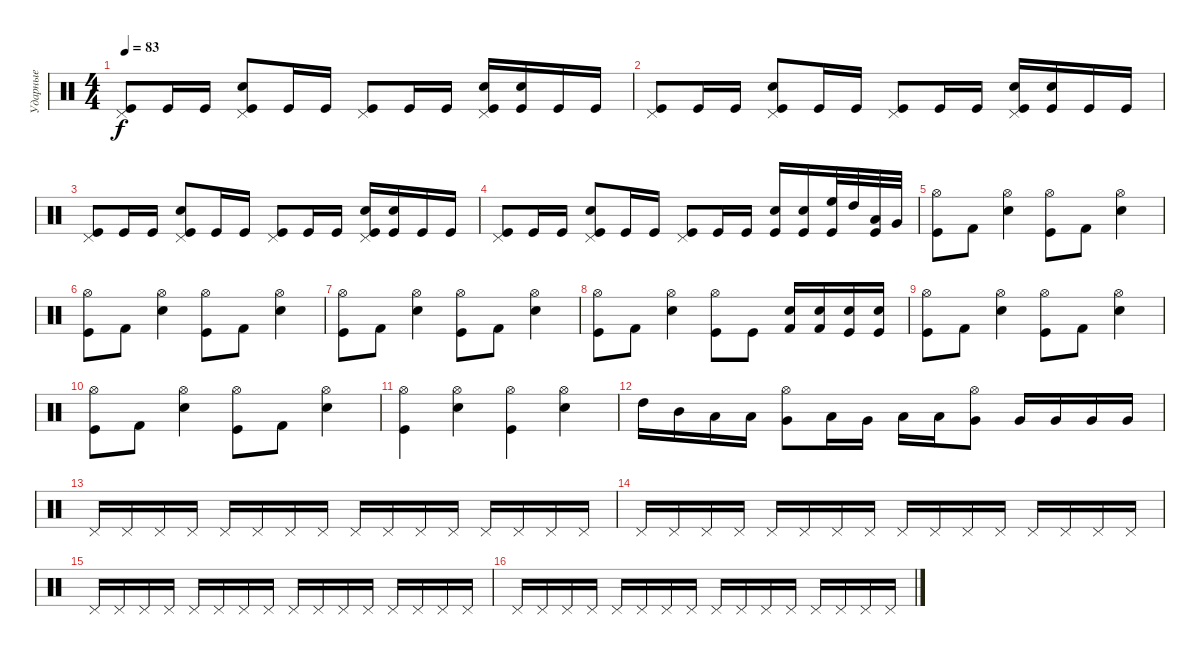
\track ("Ударные" "Ударные") {instrument percussion}
\staff {score}
\articulation defaults
\ts (4 4)
\tempo 83
\clef neutral
\ks c
("Pedal Hi-Hat (hit)" "Kick (hit)").8{dy f} "Kick (hit)".16 "Kick (hit)".16 ("Pedal Hi-Hat (hit)" "Kick (hit)" "Electric Snare (hit)").8 "Kick (hit)".16 "Kick (hit)".16 ("Pedal Hi-Hat (hit)" "Kick (hit)").8 "Kick (hit)".16 "Kick (hit)".16 ("Pedal Hi-Hat (hit)" "Kick (hit)" "Electric Snare (hit)").16 ("Kick (hit)" "Electric Snare (hit)").16 "Kick (hit)".16 "Kick (hit)".16 |
("Pedal Hi-Hat (hit)" "Kick (hit)").8 "Kick (hit)".16 "Kick (hit)".16 ("Pedal Hi-Hat (hit)" "Kick (hit)" "Electric Snare (hit)").8 "Kick (hit)".16 "Kick (hit)".16 ("Pedal Hi-Hat (hit)" "Kick (hit)").8 "Kick (hit)".16 "Kick (hit)".16 ("Pedal Hi-Hat (hit)" "Kick (hit)" "Electric Snare (hit)").16 ("Kick (hit)" "Electric Snare (hit)").16 "Kick (hit)".16 "Kick (hit)".16 |
("Pedal Hi-Hat (hit)" "Kick (hit)").8 "Kick (hit)".16 "Kick (hit)".16 ("Pedal Hi-Hat (hit)" "Kick (hit)" "Electric Snare (hit)").8 "Kick (hit)".16 "Kick (hit)".16 ("Pedal Hi-Hat (hit)" "Kick (hit)").8 "Kick (hit)".16 "Kick (hit)".16 ("Pedal Hi-Hat (hit)" "Kick (hit)" "Electric Snare (hit)").16 ("Kick (hit)" "Electric Snare (hit)").16 "Kick (hit)".16 "Kick (hit)".16 |
("Pedal Hi-Hat (hit)" "Kick (hit)").8 "Kick (hit)".16 "Kick (hit)".16 ("Pedal Hi-Hat (hit)" "Kick (hit)" "Electric Snare (hit)").8 "Kick (hit)".16 "Kick (hit)".16 ("Pedal Hi-Hat (hit)" "Kick (hit)").8 "Kick (hit)".16 "Kick (hit)".16 ("Kick (hit)" "Electric Snare (hit)").16 ("Kick (hit)" "Electric Snare (hit)").16 ("Kick (hit)" "High Floor Tom (hit)").32 "High Tom (hit)".32 ("Kick (hit)" "Low Tom (hit)").32 "Very Low Tom (hit)".32 |
("Hi-Hat (open)" "Kick (hit)").8 "Kick (hit) 2".8 ("Hi-Hat (open)" "Electric Snare (hit)").4 ("Hi-Hat (open)" "Kick (hit)").8 "Kick (hit) 2".8 ("Hi-Hat (open)" "Electric Snare (hit)").4 |
("Hi-Hat (open)" "Kick (hit)").8 "Kick (hit) 2".8 ("Hi-Hat (open)" "Electric Snare (hit)").4 ("Hi-Hat (open)" "Kick (hit)").8 "Kick (hit) 2".8 ("Hi-Hat (open)" "Electric Snare (hit)").4 |
("Hi-Hat (open)" "Kick (hit)").8 "Kick (hit) 2".8 ("Hi-Hat (open)" "Electric Snare (hit)").4 ("Hi-Hat (open)" "Kick (hit)").8 "Kick (hit) 2".8 ("Hi-Hat (open)" "Electric Snare (hit)").4 |
("Hi-Hat (open)" "Kick (hit)").8 "Kick (hit) 2".8 ("Hi-Hat (open)" "Electric Snare (hit)").4 ("Hi-Hat (open)" "Kick (hit)").8 "Kick (hit)".8 ("Kick (hit) 2" "Electric Snare (hit)").16 ("Kick (hit) 2" "Electric Snare (hit)").16 ("Electric Snare (hit)" "Kick (hit)").16 ("Electric Snare (hit)" "Kick (hit)").16 |
("Hi-Hat (open)" "Kick (hit)").8 "Kick (hit) 2".8 ("Hi-Hat (open)" "Electric Snare (hit)").4 ("Hi-Hat (open)" "Kick (hit)").8 "Kick (hit) 2".8 ("Hi-Hat (open)" "Electric Snare (hit)").4 |
("Hi-Hat (open)" "Kick (hit)").8 "Kick (hit) 2".8 ("Hi-Hat (open)" "Electric Snare (hit)").4 ("Hi-Hat (open)" "Kick (hit)").8 "Kick (hit) 2".8 ("Hi-Hat (open)" "Electric Snare (hit)").4 |
("Hi-Hat (open)" "Kick (hit)").4 ("Hi-Hat (open)" "Electric Snare (hit)").4 ("Hi-Hat (open)" "Kick (hit)").4 ("Hi-Hat (open)" "Electric Snare (hit)").4 |
"High Tom (hit)".16 "Mid Tom (hit)".16 "Low Tom (hit)".16 "Low Tom (hit)".16 ("Hi-Hat (open)" "Very Low Tom (hit)").8 "Low Tom (hit)".16 "Very Low Tom (hit)".16 "Low Floor Tom (hit)".16 "Low Floor Tom (hit)".16 ("Hi-Hat (open)" "Very Low Tom (hit)").8 "Very Low Tom (hit)".16 "Very Low Tom (hit)".16 "Very Low Tom (hit)".16 "Very Low Tom (hit)".16 |
"Pedal Hi-Hat (hit)".16 "Pedal Hi-Hat (hit)".16 "Pedal Hi-Hat (hit)".16 "Pedal Hi-Hat (hit)".16 "Pedal Hi-Hat (hit)".16 "Pedal Hi-Hat (hit)".16 "Pedal Hi-Hat (hit)".16 "Pedal Hi-Hat (hit)".16 "Pedal Hi-Hat (hit)".16 "Pedal Hi-Hat (hit)".16 "Pedal Hi-Hat (hit)".16 "Pedal Hi-Hat (hit)".16 "Pedal Hi-Hat (hit)".16 "Pedal Hi-Hat (hit)".16 "Pedal Hi-Hat (hit)".16 "Pedal Hi-Hat (hit)".16 |
"Pedal Hi-Hat (hit)".16 "Pedal Hi-Hat (hit)".16 "Pedal Hi-Hat (hit)".16 "Pedal Hi-Hat (hit)".16 "Pedal Hi-Hat (hit)".16 "Pedal Hi-Hat (hit)".16 "Pedal Hi-Hat (hit)".16 "Pedal Hi-Hat (hit)".16 "Pedal Hi-Hat (hit)".16 "Pedal Hi-Hat (hit)".16 "Pedal Hi-Hat (hit)".16 "Pedal Hi-Hat (hit)".16 "Pedal Hi-Hat (hit)".16 "Pedal Hi-Hat (hit)".16 "Pedal Hi-Hat (hit)".16 "Pedal Hi-Hat (hit)".16 |
"Pedal Hi-Hat (hit)".16 "Pedal Hi-Hat (hit)".16 "Pedal Hi-Hat (hit)".16 "Pedal Hi-Hat (hit)".16 "Pedal Hi-Hat (hit)".16 "Pedal Hi-Hat (hit)".16 "Pedal Hi-Hat (hit)".16 "Pedal Hi-Hat (hit)".16 "Pedal Hi-Hat (hit)".16 "Pedal Hi-Hat (hit)".16 "Pedal Hi-Hat (hit)".16 "Pedal Hi-Hat (hit)".16 "Pedal Hi-Hat (hit)".16 "Pedal Hi-Hat (hit)".16 "Pedal Hi-Hat (hit)".16 "Pedal Hi-Hat (hit)".16 |
"Pedal Hi-Hat (hit)".16 "Pedal Hi-Hat (hit)".16 "Pedal Hi-Hat (hit)".16 "Pedal Hi-Hat (hit)".16 "Pedal Hi-Hat (hit)".16 "Pedal Hi-Hat (hit)".16 "Pedal Hi-Hat (hit)".16 "Pedal Hi-Hat (hit)".16 "Pedal Hi-Hat (hit)".16 "Pedal Hi-Hat (hit)".16 "Pedal Hi-Hat (hit)".16 "Pedal Hi-Hat (hit)".16 "Pedal Hi-Hat (hit)".16 "Pedal Hi-Hat (hit)".16 "Pedal Hi-Hat (hit)".16 "Pedal Hi-Hat (hit)".16
